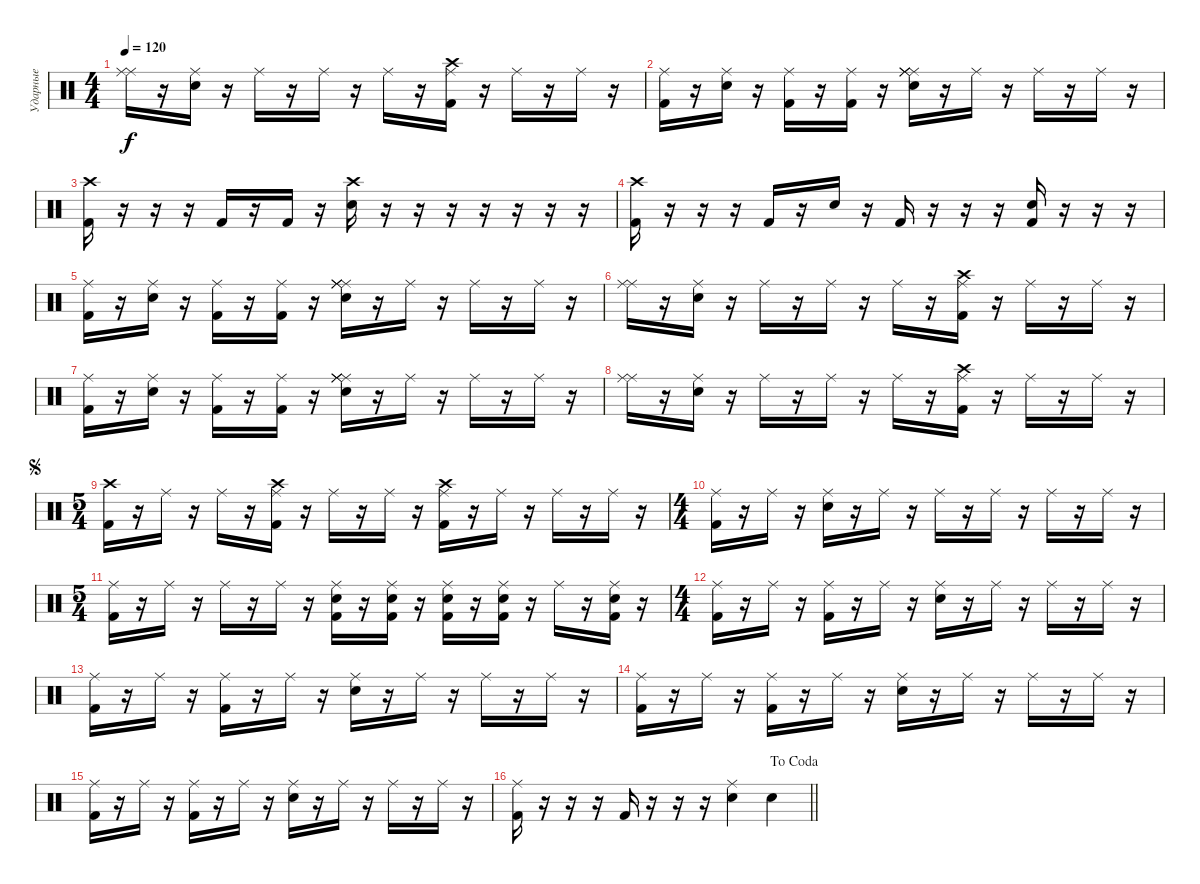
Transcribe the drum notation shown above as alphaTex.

\track ("Ударные" "Ударные") {instrument percussion}
\staff {score}
\articulation defaults
\ts (4 4)
\tempo 120
\clef neutral
\ks c
("Ride (middle)" "Ride (middle)").16{dy f} r.16 ("Ride (middle)" "Snare (hit) 2").16 r.16 "Ride (middle)".16 r.16 "Ride (middle)".16 r.16 "Ride (middle)".16 r.16 ("Ride (middle)" "Kick (hit) 2" "Crash high (hit)").16 r.16 "Ride (middle)".16 r.16 "Ride (middle)".16 r.16 |
("Ride (middle)" "Kick (hit) 2").16 r.16 ("Ride (middle)" "Snare (hit) 2").16 r.16 ("Ride (middle)" "Kick (hit) 2").16 r.16 ("Ride (middle)" "Kick (hit) 2").16 r.16 ("Ride (middle)" "Ride (middle)" "Ride (middle)" "Ride (middle)" "Snare (hit) 2").16 r.16 "Ride (middle)".16 r.16 "Ride (middle)".16 r.16 "Ride (middle)".16 r.16 |
("Kick (hit) 2" "Crash high (hit)").16 r.16 r.16 r.16 "Kick (hit) 2".16 r.16 "Kick (hit) 2".16 r.16 ("Snare (hit) 2" "Crash high (hit)").16 r.16 r.16 r.16 r.16 r.16 r.16 r.16 |
("Kick (hit) 2" "Crash high (hit)").16 r.16 r.16 r.16 "Kick (hit) 2".16 r.16 "Snare (hit) 2".16 r.16 "Kick (hit) 2".16 r.16 r.16 r.16 ("Kick (hit) 2" "Snare (hit) 2").16 r.16 r.16 r.16 |
("Ride (middle)" "Kick (hit) 2").16 r.16 ("Ride (middle)" "Snare (hit) 2").16 r.16 ("Ride (middle)" "Kick (hit) 2").16 r.16 ("Ride (middle)" "Kick (hit) 2").16 r.16 ("Ride (middle)" "Ride (middle)" "Ride (middle)" "Ride (middle)" "Snare (hit) 2").16 r.16 "Ride (middle)".16 r.16 "Ride (middle)".16 r.16 "Ride (middle)".16 r.16 |
("Ride (middle)" "Ride (middle)").16 r.16 ("Ride (middle)" "Snare (hit) 2").16 r.16 "Ride (middle)".16 r.16 "Ride (middle)".16 r.16 "Ride (middle)".16 r.16 ("Ride (middle)" "Kick (hit) 2" "Crash high (hit)").16 r.16 "Ride (middle)".16 r.16 "Ride (middle)".16 r.16 |
("Ride (middle)" "Kick (hit) 2").16 r.16 ("Ride (middle)" "Snare (hit) 2").16 r.16 ("Ride (middle)" "Kick (hit) 2").16 r.16 ("Ride (middle)" "Kick (hit) 2").16 r.16 ("Ride (middle)" "Ride (middle)" "Ride (middle)" "Ride (middle)" "Snare (hit) 2").16 r.16 "Ride (middle)".16 r.16 "Ride (middle)".16 r.16 "Ride (middle)".16 r.16 |
("Ride (middle)" "Ride (middle)").16 r.16 ("Ride (middle)" "Snare (hit) 2").16 r.16 "Ride (middle)".16 r.16 "Ride (middle)".16 r.16 "Ride (middle)".16 r.16 ("Ride (middle)" "Kick (hit) 2" "Crash high (hit)").16 r.16 "Ride (middle)".16 r.16 "Ride (middle)".16 r.16 |
\ts (5 4)
\jump segno
("Kick (hit) 2" "Crash high (hit)").16 r.16 "Ride (middle)".16 r.16 "Ride (middle)".16 r.16 ("Crash high (hit)" "Kick (hit) 2" "Ride (middle)").16 r.16 "Ride (middle)".16 r.16 "Ride (middle)".16 r.16 ("Crash high (hit)" "Kick (hit) 2" "Ride (middle)").16 r.16 "Ride (middle)".16 r.16 "Ride (middle)".16 r.16 "Ride (middle)".16 r.16 |
\ts (4 4)
("Kick (hit) 2" "Ride (middle)").16 r.16 "Ride (middle)".16 r.16 ("Snare (hit) 2" "Ride (middle)").16 r.16 "Ride (middle)".16 r.16 "Ride (middle)".16 r.16 "Ride (middle)".16 r.16 "Ride (middle)".16 r.16 "Ride (middle)".16 r.16 |
\ts (5 4)
("Kick (hit) 2" "Ride (middle)").16 r.16 "Ride (middle)".16 r.16 "Ride (middle)".16 r.16 "Ride (middle)".16 r.16 ("Kick (hit) 2" "Snare (hit) 2" "Ride (middle)").16 r.16 ("Kick (hit) 2" "Snare (hit) 2" "Ride (middle)").16 r.16 ("Kick (hit) 2" "Snare (hit) 2" "Ride (middle)").16 r.16 ("Kick (hit) 2" "Snare (hit) 2" "Ride (middle)").16 r.16 "Ride (middle)".16 r.16 ("Kick (hit) 2" "Snare (hit) 2" "Ride (middle)").16 r.16 |
\ts (4 4)
("Kick (hit) 2" "Ride (middle)").16 r.16 "Ride (middle)".16 r.16 ("Kick (hit) 2" "Ride (middle)").16 r.16 "Ride (middle)".16 r.16 ("Snare (hit) 2" "Ride (middle)").16 r.16 "Ride (middle)".16 r.16 "Ride (middle)".16 r.16 "Ride (middle)".16 r.16 |
("Kick (hit) 2" "Ride (middle)").16 r.16 "Ride (middle)".16 r.16 ("Kick (hit) 2" "Ride (middle)").16 r.16 "Ride (middle)".16 r.16 ("Snare (hit) 2" "Ride (middle)").16 r.16 "Ride (middle)".16 r.16 "Ride (middle)".16 r.16 "Ride (middle)".16 r.16 |
("Kick (hit) 2" "Ride (middle)").16 r.16 "Ride (middle)".16 r.16 ("Kick (hit) 2" "Ride (middle)").16 r.16 "Ride (middle)".16 r.16 ("Snare (hit) 2" "Ride (middle)").16 r.16 "Ride (middle)".16 r.16 "Ride (middle)".16 r.16 "Ride (middle)".16 r.16 |
("Kick (hit) 2" "Ride (middle)").16 r.16 "Ride (middle)".16 r.16 ("Kick (hit) 2" "Ride (middle)").16 r.16 "Ride (middle)".16 r.16 ("Snare (hit) 2" "Ride (middle)").16 r.16 "Ride (middle)".16 r.16 "Ride (middle)".16 r.16 "Ride (middle)".16 r.16 |
\jump dacoda
\barLineRight lightlight
("Kick (hit) 2" "Ride (middle)").16 r.16 r.16 r.16 "Kick (hit) 2".16 r.16 r.16 r.16 ("Ride (middle)" "Snare (hit) 2").4 "Snare (hit) 2".4
